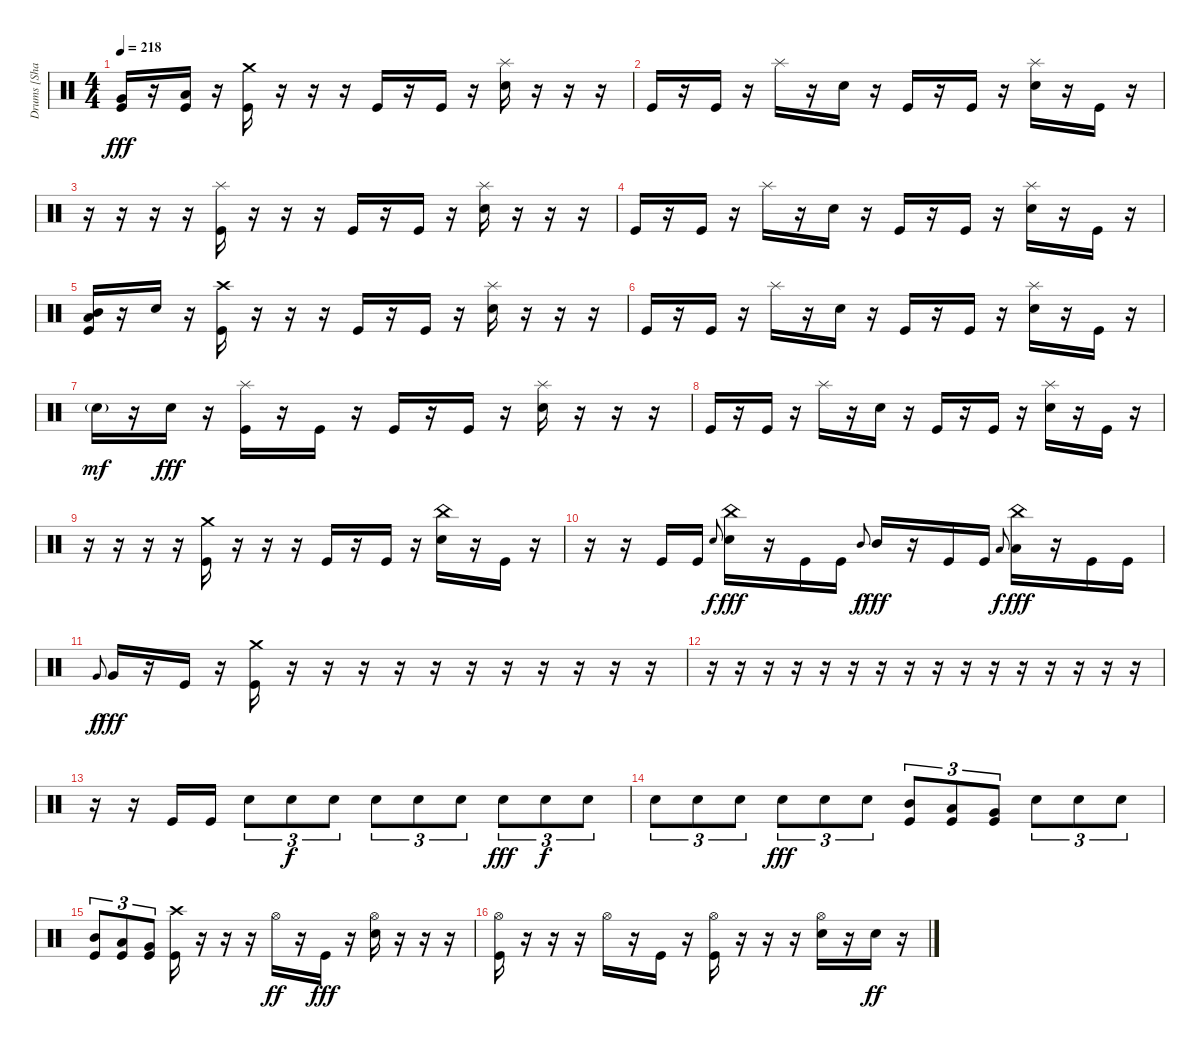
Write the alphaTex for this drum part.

\track ("Drums [Shannon Larkin]" "Drums [Sha") {instrument percussion}
\staff {score}
\articulation defaults
\ts (4 4)
\tempo 218
\clef neutral
\ks c
("Very Low Tom (hit)" "Kick (hit)").16{dy fff} r.16 ("Low Floor Tom (hit)" "Kick (hit)").16 r.16 ("Crash medium (hit)" "Kick (hit)").16 r.16 r.16 r.16 "Kick (hit)".16 r.16 "Kick (hit)".16 r.16 ("Splash (hit)" "Electric Snare (hit)").16 r.16 r.16 r.16 |
"Kick (hit)".16 r.16 "Kick (hit)".16 r.16 "Splash (hit)".16 r.16 "Electric Snare (hit)".16 r.16 "Kick (hit)".16 r.16 "Kick (hit)".16 r.16 ("Splash (hit)" "Electric Snare (hit)").16 r.16 "Kick (hit)".16 r.16 |
r.16 r.16 r.16 r.16 ("Splash (hit)" "Kick (hit)").16 r.16 r.16 r.16 "Kick (hit)".16 r.16 "Kick (hit)".16 r.16 ("Splash (hit)" "Electric Snare (hit)").16 r.16 r.16 r.16 |
"Kick (hit)".16 r.16 "Kick (hit)".16 r.16 "Splash (hit)".16 r.16 "Electric Snare (hit)".16 r.16 "Kick (hit)".16 r.16 "Kick (hit)".16 r.16 ("Splash (hit)" "Electric Snare (hit)").16 r.16 "Kick (hit)".16 r.16 |
("Mid Tom (hit)" "Low Tom (hit)" "Kick (hit)").16 r.16 "Electric Snare (hit)".16 r.16 ("Crash high (hit)" "Kick (hit)").16 r.16 r.16 r.16 "Kick (hit)".16 r.16 "Kick (hit)".16 r.16 ("Splash (hit)" "Electric Snare (hit)").16 r.16 r.16 r.16 |
"Kick (hit)".16 r.16 "Kick (hit)".16 r.16 "Splash (hit)".16 r.16 "Electric Snare (hit)".16 r.16 "Kick (hit)".16 r.16 "Kick (hit)".16 r.16 ("Splash (hit)" "Electric Snare (hit)").16 r.16 "Kick (hit)".16 r.16 |
"Electric Snare (hit)"{g}.16{dy mf} r.16 "Electric Snare (hit)".16{dy fff} r.16 ("Splash (hit)" "Kick (hit)").16 r.16 "Kick (hit)".16 r.16 "Kick (hit)".16 r.16 "Kick (hit)".16 r.16 ("Splash (hit)" "Electric Snare (hit)").16 r.16 r.16 r.16 |
"Kick (hit)".16 r.16 "Kick (hit)".16 r.16 "Splash (hit)".16 r.16 "Electric Snare (hit)".16 r.16 "Kick (hit)".16 r.16 "Kick (hit)".16 r.16 ("Splash (hit)" "Electric Snare (hit)").16 r.16 "Kick (hit)".16 r.16 |
r.16 r.16 r.16 r.16 ("Crash medium (hit)" "Kick (hit)").16 r.16 r.16 r.16 "Kick (hit)".16 r.16 "Kick (hit)".16 r.16 ("China (hit)" "Electric Snare (hit)").16 r.16 "Kick (hit)".16 r.16 |
r.16 r.16 "Kick (hit)".16 "Kick (hit)".16 "Electric Snare (hit)".8{gr onbeat dy f} ("China (hit)" "Electric Snare (hit)").16{dy fff} r.16 "Kick (hit)".16 "Kick (hit)".16 "Mid Tom (hit)".8{gr onbeat dy f} "Mid Tom (hit)".16{dy fff} r.16 "Kick (hit)".16 "Kick (hit)".16 "Low Tom (hit)".8{gr onbeat dy f} ("China (hit)" "Low Tom (hit)").16{dy fff} r.16 "Kick (hit)".16 "Kick (hit)".16 |
"Very Low Tom (hit)".8{gr onbeat dy f} "Very Low Tom (hit)".16{dy fff} r.16 "Kick (hit)".16 r.16 ("Crash medium (hit)" "Kick (hit)").16 r.16 r.16 r.16 r.16 r.16 r.16 r.16 r.16 r.16 r.16 r.16 |
r.16 r.16 r.16 r.16 r.16 r.16 r.16 r.16 r.16 r.16 r.16 r.16 r.16 r.16 r.16 r.16 |
r.16 r.16 "Kick (hit)".16 "Kick (hit)".16 "Electric Snare (hit)".8{tu (3 2)} "Electric Snare (hit)".8{tu (3 2) dy f} "Electric Snare (hit)".8{tu (3 2)} "Electric Snare (hit)".8{tu (3 2)} "Electric Snare (hit)".8{tu (3 2)} "Electric Snare (hit)".8{tu (3 2)} "Electric Snare (hit)".8{tu (3 2) dy fff} "Electric Snare (hit)".8{tu (3 2) dy f} "Electric Snare (hit)".8{tu (3 2)} |
"Electric Snare (hit)".8{tu (3 2)} "Electric Snare (hit)".8{tu (3 2)} "Electric Snare (hit)".8{tu (3 2)} "Electric Snare (hit)".8{tu (3 2) dy fff} "Electric Snare (hit)".8{tu (3 2)} "Electric Snare (hit)".8{tu (3 2)} ("Mid Tom (hit)" "Kick (hit)").8{tu (3 2)} ("Low Tom (hit)" "Kick (hit)").8{tu (3 2)} ("Very Low Tom (hit)" "Kick (hit)").8{tu (3 2)} "Electric Snare (hit)".8{tu (3 2)} "Electric Snare (hit)".8{tu (3 2)} "Electric Snare (hit)".8{tu (3 2)} |
("Mid Tom (hit)" "Kick (hit)").8{tu (3 2)} ("Low Tom (hit)" "Kick (hit)").8{tu (3 2)} ("Very Low Tom (hit)" "Kick (hit)").8{tu (3 2)} ("Crash high (hit)" "Kick (hit)").16 r.16 r.16 r.16 "Hi-Hat (open)".16{dy ff} r.16 "Kick (hit)".16{dy fff} r.16 ("Hi-Hat (open)" "Electric Snare (hit)").16 r.16 r.16 r.16 |
("Hi-Hat (open)" "Kick (hit)").16 r.16 r.16 r.16 "Hi-Hat (open)".16 r.16 "Kick (hit)".16 r.16 ("Hi-Hat (open)" "Kick (hit)").16 r.16 r.16 r.16 ("Hi-Hat (open)" "Electric Snare (hit)").16 r.16 "Electric Snare (hit)".16{dy ff} r.16
